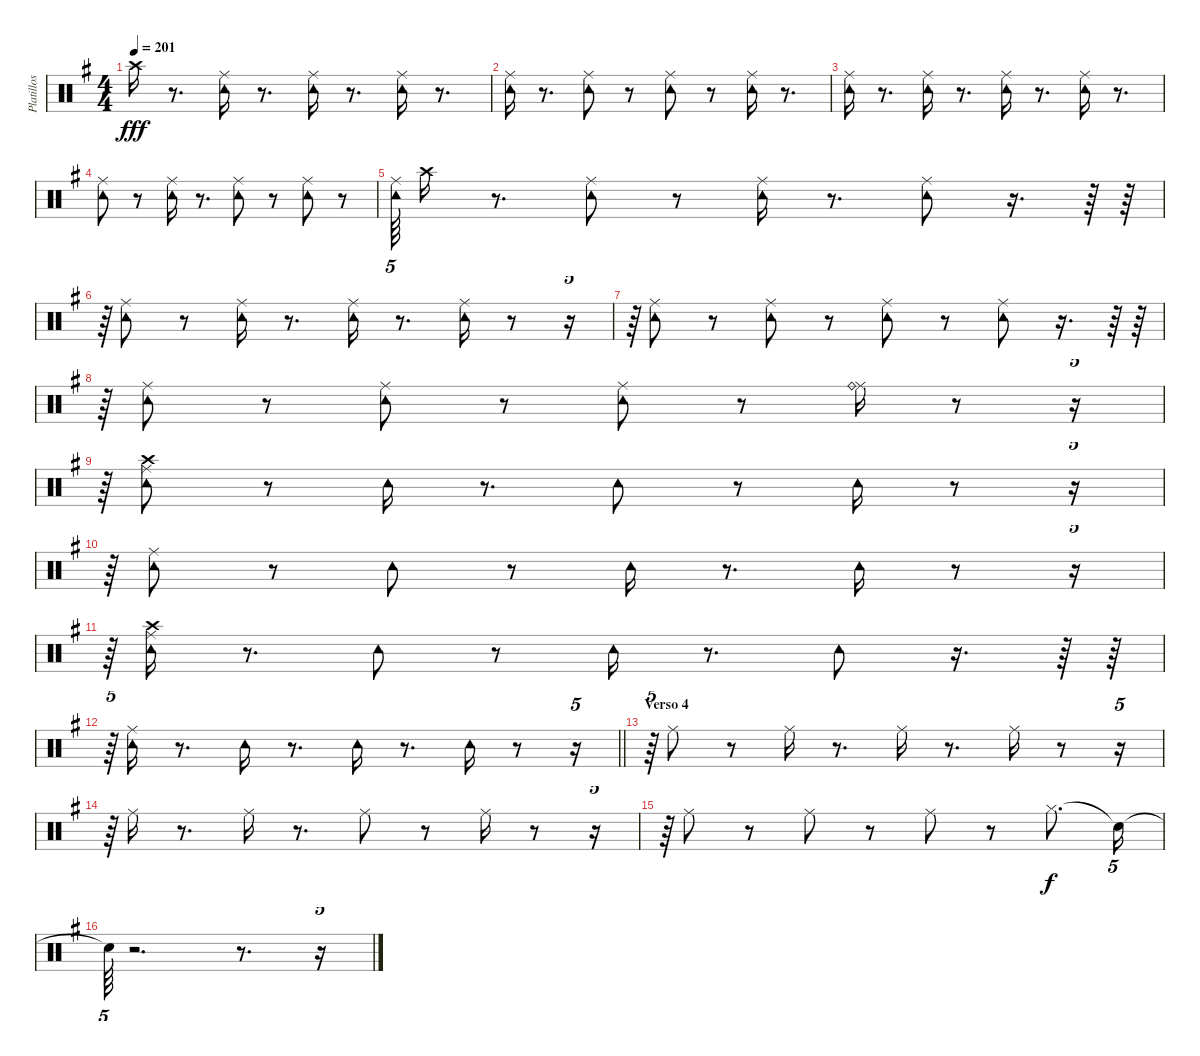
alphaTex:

\track ("Platillos y pandero" "Platillos ") {instrument percussion}
\staff {score}
\articulation defaults
\ts (4 4)
\tempo 201
\clef neutral
\ks g "Crash high (hit)".16{dy fff}
r.8{d} ("Tambourine (hit)" "Ride (middle)").16 r.8{d} ("Ride (middle)" "Tambourine (hit)").16 r.8{d} ("Tambourine (hit)" "Ride (middle)").16 r.8{d} |
("Ride (middle)" "Tambourine (hit)").16 r.8{d} ("Ride (middle)" "Tambourine (hit)").8 r.8 ("Ride (middle)" "Tambourine (hit)").8 r.8 ("Ride (middle)" "Tambourine (hit)").16 r.8{d} |
("Ride (middle)" "Tambourine (hit)").16 r.8{d} ("Tambourine (hit)" "Ride (middle)").16 r.8{d} ("Tambourine (hit)" "Ride (middle)").16 r.8{d} ("Ride (middle)" "Tambourine (hit)").16 r.8{d} |
("Ride (middle)" "Tambourine (hit)").8 r.8 ("Ride (middle)" "Tambourine (hit)").16 r.8{d} ("Ride (middle)" "Tambourine (hit)").8 r.8 ("Tambourine (hit)" "Ride (middle)").8 r.8 |
("Tambourine (hit)" "Ride (middle)").64{tu (5 4)} "Crash high (hit)".16 r.8{d} ("Tambourine (hit)" "Ride (middle)").8 r.8 ("Tambourine (hit)" "Ride (middle)").16 r.8{d} ("Ride (middle)" "Tambourine (hit)").8 r.16{d} r.64 r.64 |
r.64{tu (5 4)} ("Ride (middle)" "Tambourine (hit)").8 r.8 ("Ride (middle)" "Tambourine (hit)").16 r.8{d} ("Ride (middle)" "Tambourine (hit)").16 r.8{d} ("Ride (middle)" "Tambourine (hit)").16 r.8 r.16{tu (5 4)} |
r.64{tu (5 4)} ("Tambourine (hit)" "Ride (middle)").8 r.8 ("Ride (middle)" "Tambourine (hit)").8 r.8 ("Ride (middle)" "Tambourine (hit)").8 r.8 ("Tambourine (hit)" "Ride (middle)").8 r.16{d} r.64 r.64 |
r.64{tu (5 4)} ("Tambourine (hit)" "Ride (middle)").8 r.8 ("Tambourine (hit)" "Ride (middle)").8 r.8 ("Ride (middle)" "Tambourine (hit)").8 r.8 ("Ride (middle)" "Ride (bell)").16 r.8 r.16{tu (5 4)} |
r.64{tu (5 4)} ("Ride (middle)" "Tambourine (hit)" "Crash high (hit)").8 r.8 "Tambourine (hit)".16 r.8{d} "Tambourine (hit)".8 r.8 "Tambourine (hit)".16 r.8 r.16{tu (5 4)} |
r.64{tu (5 4)} ("Tambourine (hit)" "Ride (middle)").8 r.8 "Tambourine (hit)".8 r.8 "Tambourine (hit)".16 r.8{d} "Tambourine (hit)".16 r.8 r.16{tu (5 4)} |
r.64{tu (5 4)} ("Ride (middle)" "Crash high (hit)" "Tambourine (hit)").16 r.8{d} "Tambourine (hit)".8 r.8 "Tambourine (hit)".16 r.8{d} "Tambourine (hit)".8 r.16{d} r.64 r.64 |
\barLineRight lightlight
r.64{tu (5 4)} ("Ride (middle)" "Tambourine (hit)").16 r.8{d} "Tambourine (hit)".16 r.8{d} "Tambourine (hit)".16 r.8{d} "Tambourine (hit)".16 r.8 r.16{tu (5 4)} |
\section ("" "Verso 4")
r.64{tu (5 4)} "Ride (middle)".8 r.8 "Ride (middle)".16 r.8{d} "Ride (middle)".16 r.8{d} "Ride (middle)".16 r.8 r.16{tu (5 4)} |
r.64{tu (5 4)} "Ride (middle)".16 r.8{d} "Ride (middle)".16 r.8{d} "Ride (middle)".8 r.8 "Ride (middle)".16 r.8 r.16{tu (5 4)} |
r.64{tu (5 4)} "Ride (middle)".8 r.8 "Ride (middle)".8 r.8 "Ride (middle)".8 r.8 "Hi-Hat (closed)".8{d dy f} "Snare (hit)"{t}.16{tu (5 4)} |
"Snare (hit)"{t}.64{tu (5 4)} r.2{d} r.8{d} r.16{tu (5 4)}
